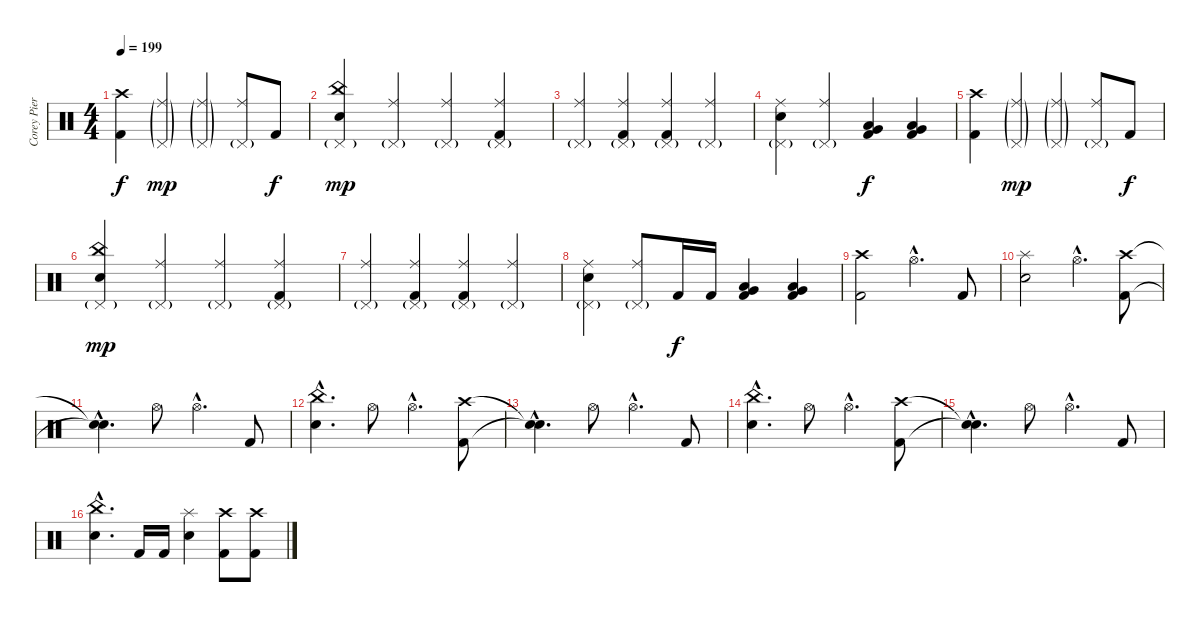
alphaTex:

\track ("Corey Pierce (Drums)" "Corey Pier") {instrument percussion}
\staff {score}
\articulation defaults
\ts (4 4)
\tempo 199
\clef neutral
\ks c
("Crash high (hit)" "Kick (hit) 2").4{dy f} ("Ride (middle)"{g} "Pedal Hi-Hat (hit)"{g}).4{dy mp} ("Ride (middle)"{g} "Pedal Hi-Hat (hit)"{g}).4 ("Pedal Hi-Hat (hit)"{g} "Ride (middle)").8 "Kick (hit) 2".8{dy f} |
("Pedal Hi-Hat (hit)"{g} "China (hit)" "Snare (hit) 2").4{dy mp} ("Pedal Hi-Hat (hit)"{g} "Ride (middle)").4 ("Pedal Hi-Hat (hit)"{g} "Ride (middle)").4 ("Pedal Hi-Hat (hit)"{g} "Ride (middle)" "Kick (hit) 2").4 |
("Pedal Hi-Hat (hit)"{g} "Ride (middle)").4 ("Pedal Hi-Hat (hit)"{g} "Ride (middle)" "Kick (hit) 2").4 ("Pedal Hi-Hat (hit)"{g} "Ride (middle)" "Kick (hit) 2").4 ("Pedal Hi-Hat (hit)"{g} "Ride (middle)").4 |
("Pedal Hi-Hat (hit)"{g} "Ride (middle)" "Snare (hit) 2").4 ("Pedal Hi-Hat (hit)"{g} "Ride (middle)").4 ("Kick (hit) 2" "Low Floor Tom (hit)" "Very Low Tom (hit)").4{dy f} ("Kick (hit) 2" "Very Low Tom (hit)" "Low Floor Tom (hit)").4 |
("Crash high (hit)" "Kick (hit) 2").4 ("Ride (middle)"{g} "Pedal Hi-Hat (hit)"{g}).4{dy mp} ("Ride (middle)"{g} "Pedal Hi-Hat (hit)"{g}).4 ("Pedal Hi-Hat (hit)"{g} "Ride (middle)").8 "Kick (hit) 2".8{dy f} |
("Pedal Hi-Hat (hit)"{g} "China (hit)" "Snare (hit) 2").4{dy mp} ("Pedal Hi-Hat (hit)"{g} "Ride (middle)").4 ("Pedal Hi-Hat (hit)"{g} "Ride (middle)").4 ("Pedal Hi-Hat (hit)"{g} "Ride (middle)" "Kick (hit) 2").4 |
("Pedal Hi-Hat (hit)"{g} "Ride (middle)").4 ("Pedal Hi-Hat (hit)"{g} "Ride (middle)" "Kick (hit) 2").4 ("Pedal Hi-Hat (hit)"{g} "Ride (middle)" "Kick (hit) 2").4 ("Pedal Hi-Hat (hit)"{g} "Ride (middle)").4 |
("Pedal Hi-Hat (hit)"{g} "Ride (middle)" "Snare (hit) 2").4 ("Pedal Hi-Hat (hit)"{g} "Ride (middle)").8 "Kick (hit) 2".16{dy f} "Kick (hit) 2".16 ("Kick (hit) 2" "Very Low Tom (hit)" "Low Floor Tom (hit)").4 ("Kick (hit) 2" "Very Low Tom (hit)" "Low Floor Tom (hit)").4 |
("Crash high (hit)" "Kick (hit) 2").2 "Hi-Hat (open)"{hac}.4{d} "Kick (hit) 2".8 |
("Splash (hit)" "Snare (hit) 2").2 "Hi-Hat (open)"{hac}.4{d} ("Crash high (hit)" "Kick (hit) 2").8 |
("Snare (hit)"{hac t} "Snare (hit)"{hac t}).4{d} "Hi-Hat (open)".8 "Hi-Hat (open)"{hac}.4{d} "Kick (hit) 2".8 |
("China (hit)"{hac} "Snare (hit) 2"{hac}).4{d} "Hi-Hat (open)".8 "Hi-Hat (open)"{hac}.4{d} ("Crash high (hit)" "Kick (hit) 2").8 |
("Snare (hit)"{hac t} "Snare (hit)"{hac t}).4{d} "Hi-Hat (open)".8 "Hi-Hat (open)"{hac}.4{d} "Kick (hit) 2".8 |
("China (hit)"{hac} "Snare (hit) 2"{hac}).4{d} "Hi-Hat (open)".8 "Hi-Hat (open)"{hac}.4{d} ("Crash high (hit)" "Kick (hit) 2").8 |
("Snare (hit)"{hac t} "Snare (hit)"{hac t}).4{d} "Hi-Hat (open)".8 "Hi-Hat (open)"{hac}.4{d} "Kick (hit) 2".8 |
("China (hit)"{hac} "Snare (hit) 2"{hac}).4{d} "Kick (hit) 2".16 "Kick (hit) 2".16 ("Splash (hit)" "Snare (hit) 2").4 ("Crash high (hit)" "Kick (hit) 2").8 ("Crash high (hit)" "Kick (hit) 2").8
